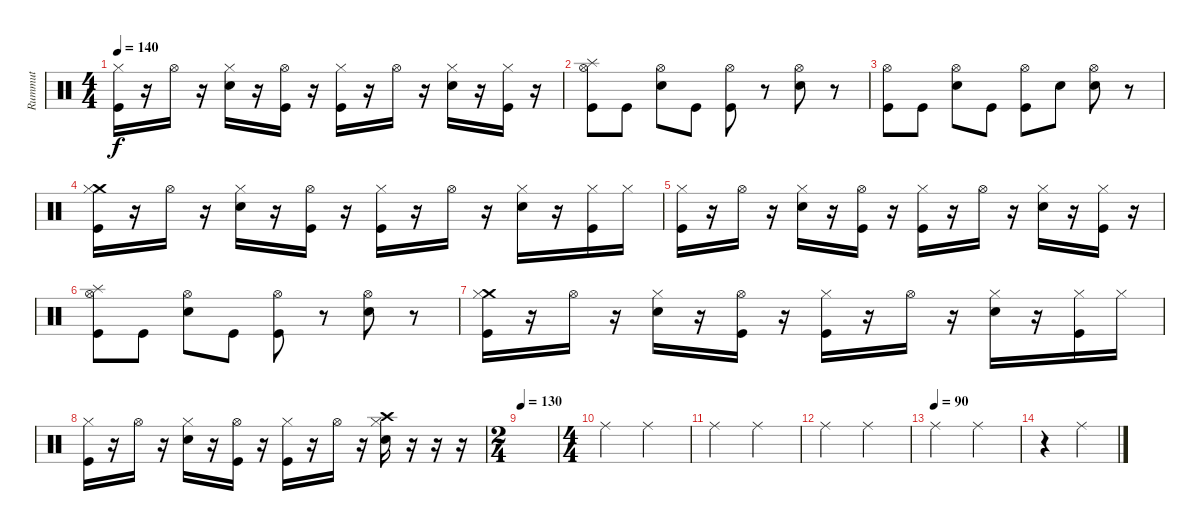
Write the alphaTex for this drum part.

\track ("Rummut" "Rummut") {instrument percussion}
\staff {score}
\articulation defaults
\ts (4 4)
\tempo 140
\clef neutral
\ks c
("Hi-Hat (closed)" "Kick (hit)").16{dy f} r.16 "Hi-Hat (open)".16 r.16 ("Hi-Hat (closed)" "Snare (hit) 2").16 r.16 ("Hi-Hat (open)" "Kick (hit)").16 r.16 ("Hi-Hat (closed)" "Kick (hit)").16 r.16 "Hi-Hat (open)".16 r.16 ("Hi-Hat (closed)" "Snare (hit) 2").16 r.16 ("Hi-Hat (closed)" "Kick (hit)").16 r.16 |
("Splash (hit)" "Hi-Hat (open)" "Kick (hit)").8 "Kick (hit)".8 ("Hi-Hat (open)" "Snare (hit) 2").8 "Kick (hit)".8 ("Hi-Hat (open)" "Kick (hit)").8 r.8 ("Hi-Hat (open)" "Snare (hit) 2").8 r.8 |
("Hi-Hat (open)" "Kick (hit)").8 "Kick (hit)".8 ("Hi-Hat (open)" "Snare (hit) 2").8 "Kick (hit)".8 ("Hi-Hat (open)" "Kick (hit)").8 "Snare (hit) 2".8 ("Hi-Hat (open)" "Snare (hit) 2").8 r.8 |
("Crash medium (hit)" "Hi-Hat (closed)" "Kick (hit)").16 r.16 "Hi-Hat (open)".16 r.16 ("Hi-Hat (closed)" "Snare (hit) 2").16 r.16 ("Hi-Hat (open)" "Kick (hit)").16 r.16 ("Hi-Hat (closed)" "Kick (hit)").16 r.16 "Hi-Hat (open)".16 r.16 ("Hi-Hat (closed)" "Snare (hit) 2").16 r.16 ("Hi-Hat (closed)" "Kick (hit)").16 "Hi-Hat (closed)".16 |
("Hi-Hat (closed)" "Kick (hit)").16 r.16 "Hi-Hat (open)".16 r.16 ("Hi-Hat (closed)" "Snare (hit) 2").16 r.16 ("Hi-Hat (open)" "Kick (hit)").16 r.16 ("Hi-Hat (closed)" "Kick (hit)").16 r.16 "Hi-Hat (open)".16 r.16 ("Hi-Hat (closed)" "Snare (hit) 2").16 r.16 ("Hi-Hat (closed)" "Kick (hit)").16 r.16 |
("Splash (hit)" "Hi-Hat (open)" "Kick (hit)").8 "Kick (hit)".8 ("Hi-Hat (open)" "Snare (hit) 2").8 "Kick (hit)".8 ("Hi-Hat (open)" "Kick (hit)").8 r.8 ("Hi-Hat (open)" "Snare (hit) 2").8 r.8 |
("Crash medium (hit)" "Hi-Hat (closed)" "Kick (hit)").16 r.16 "Hi-Hat (open)".16 r.16 ("Hi-Hat (closed)" "Snare (hit) 2").16 r.16 ("Hi-Hat (open)" "Kick (hit)").16 r.16 ("Hi-Hat (closed)" "Kick (hit)").16 r.16 "Hi-Hat (open)".16 r.16 ("Hi-Hat (closed)" "Snare (hit) 2").16 r.16 ("Hi-Hat (closed)" "Kick (hit)").16 "Hi-Hat (closed)".16 |
("Hi-Hat (closed)" "Kick (hit)").16 r.16 "Hi-Hat (open)".16 r.16 ("Hi-Hat (closed)" "Snare (hit) 2").16 r.16 ("Hi-Hat (open)" "Kick (hit)").16 r.16 ("Hi-Hat (closed)" "Kick (hit)").16 r.16 "Hi-Hat (open)".16 r.16 ("Crash high (hit)" "Hi-Hat (closed)" "Snare (hit) 2").16 r.16 r.16 r.16 |
\ts (2 4)
\tempo 130
|
\ts (4 4)
"Ride (middle)".2 "Ride (middle)".2 |
"Ride (middle)".2 "Ride (middle)".2 |
"Ride (middle)".2 "Ride (middle)".2 |
\tempo (90)
"Ride (middle)".2 "Ride (middle)".2 |
r.4 "Ride (middle)".4
